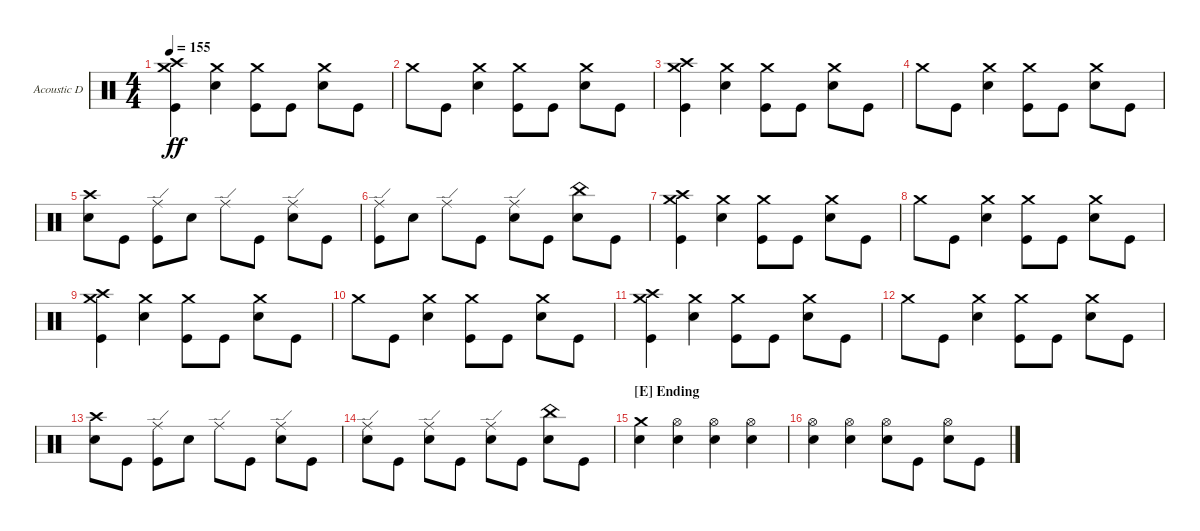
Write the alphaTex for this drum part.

\defaultSystemsLayout 4
\bracketExtendMode groupsimilarinstruments
\firstSystemTrackNameOrientation horizontal
\otherSystemsTrackNameOrientation horizontal
\track ("Acoustic Drums" "Acoustic D") {instrument percussion}
\staff {score}
\articulation defaults
\ts (4 4)
\tempo 155
\clef neutral
\ks c
("Crash medium (hit)" "Kick (hit)" "Crash high (hit)").4{dy ff} ("Crash medium (hit)" "Snare (hit) 2").4 ("Crash medium (hit)" "Kick (hit)").8 "Kick (hit)".8 ("Crash medium (hit)" "Snare (hit) 2").8 "Kick (hit)".8 |
"Crash medium (hit)".8 "Kick (hit)".8 ("Crash medium (hit)" "Snare (hit) 2").4 ("Crash medium (hit)" "Kick (hit)").8 "Kick (hit)".8 ("Crash medium (hit)" "Snare (hit) 2").8 "Kick (hit)".8 |
("Crash medium (hit)" "Kick (hit)" "Crash high (hit)").4 ("Crash medium (hit)" "Snare (hit) 2").4 ("Crash medium (hit)" "Kick (hit)").8 "Kick (hit)".8 ("Crash medium (hit)" "Snare (hit) 2").8 "Kick (hit)".8 |
"Crash medium (hit)".8 "Kick (hit)".8 ("Crash medium (hit)" "Snare (hit) 2").4 ("Crash medium (hit)" "Kick (hit)").8 "Kick (hit)".8 ("Crash medium (hit)" "Snare (hit) 2").8 "Kick (hit)".8 |
("Crash high (hit)" "Snare (hit) 2").8 "Kick (hit)".8 ("Ride (edge)" "Kick (hit)").8 "Snare (hit) 2".8 "Ride (edge)".8 "Kick (hit)".8 ("Ride (edge)" "Snare (hit) 2").8 "Kick (hit)".8 |
("Ride (edge)" "Kick (hit)").8 "Snare (hit) 2".8 "Ride (edge)".8 "Kick (hit)".8 ("Ride (edge)" "Snare (hit) 2").8 "Kick (hit)".8 ("Snare (hit) 2" "China (hit)").8 "Kick (hit)".8 |
("Crash high (hit)" "Crash medium (hit)" "Kick (hit)").4 ("Crash medium (hit)" "Snare (hit) 2").4 ("Crash medium (hit)" "Kick (hit)").8 "Kick (hit)".8 ("Crash medium (hit)" "Snare (hit) 2").8 "Kick (hit)".8 |
"Crash medium (hit)".8 "Kick (hit)".8 ("Crash medium (hit)" "Snare (hit) 2").4 ("Crash medium (hit)" "Kick (hit)").8 "Kick (hit)".8 ("Crash medium (hit)" "Snare (hit) 2").8 "Kick (hit)".8 |
("Crash medium (hit)" "Kick (hit)" "Crash high (hit)").4 ("Crash medium (hit)" "Snare (hit) 2").4 ("Crash medium (hit)" "Kick (hit)").8 "Kick (hit)".8 ("Crash medium (hit)" "Snare (hit) 2").8 "Kick (hit)".8 |
"Crash medium (hit)".8 "Kick (hit)".8 ("Crash medium (hit)" "Snare (hit) 2").4 ("Crash medium (hit)" "Kick (hit)").8 "Kick (hit)".8 ("Crash medium (hit)" "Snare (hit) 2").8 "Kick (hit)".8 |
("Crash medium (hit)" "Kick (hit)" "Crash high (hit)").4 ("Crash medium (hit)" "Snare (hit) 2").4 ("Crash medium (hit)" "Kick (hit)").8 "Kick (hit)".8 ("Crash medium (hit)" "Snare (hit) 2").8 "Kick (hit)".8 |
"Crash medium (hit)".8 "Kick (hit)".8 ("Crash medium (hit)" "Snare (hit) 2").4 ("Crash medium (hit)" "Kick (hit)").8 "Kick (hit)".8 ("Crash medium (hit)" "Snare (hit) 2").8 "Kick (hit)".8 |
("Crash high (hit)" "Snare (hit) 2").8 "Kick (hit)".8 ("Ride (edge)" "Kick (hit)").8 "Snare (hit) 2".8 "Ride (edge)".8 "Kick (hit)".8 ("Ride (edge)" "Snare (hit) 2").8 "Kick (hit)".8 |
("Ride (edge)" "Snare (hit) 2").8 "Kick (hit)".8 ("Ride (edge)" "Snare (hit) 2").8 "Kick (hit)".8 ("Ride (edge)" "Snare (hit) 2").8 "Kick (hit)".8 ("Snare (hit) 2" "China (hit)").8 "Kick (hit)".8 |
\section ("E" "Ending")
("Snare (hit) 2" "Crash medium (hit)").4 ("Snare (hit) 2" "Hi-Hat (open)").4 ("Snare (hit) 2" "Hi-Hat (open)").4 ("Snare (hit) 2" "Hi-Hat (open)").4 |
("Snare (hit) 2" "Hi-Hat (open)").4 ("Snare (hit) 2" "Hi-Hat (open)").4 ("Snare (hit) 2" "Hi-Hat (open)").8 "Kick (hit)".8 ("Snare (hit) 2" "Hi-Hat (open)").8 "Kick (hit)".8
